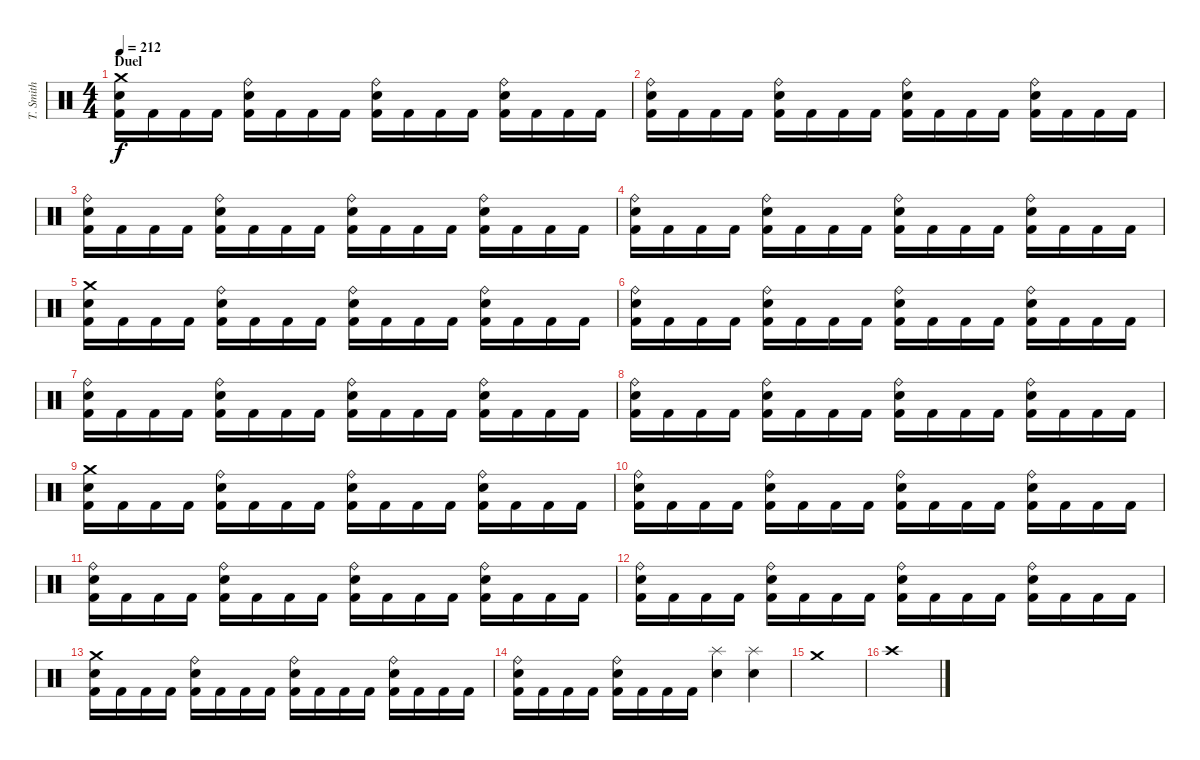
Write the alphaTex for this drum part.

\track ("T. Smith" "T. Smith") {instrument percussion}
\staff {score}
\articulation defaults
\ts (4 4)
\section ("" "Duel")
\tempo 212
\clef neutral
\ks c
("Crash medium (hit)" "Electric Snare (hit)" "Kick (hit) 2").16{dy f} "Kick (hit) 2".16 "Kick (hit) 2".16 "Kick (hit) 2".16 ("Ride (bell)" "Electric Snare (hit)" "Kick (hit) 2").16 "Kick (hit) 2".16 "Kick (hit) 2".16 "Kick (hit) 2".16 ("Ride (bell)" "Electric Snare (hit)" "Kick (hit) 2").16 "Kick (hit) 2".16 "Kick (hit) 2".16 "Kick (hit) 2".16 ("Ride (bell)" "Electric Snare (hit)" "Kick (hit) 2").16 "Kick (hit) 2".16 "Kick (hit) 2".16 "Kick (hit) 2".16 |
("Ride (bell)" "Electric Snare (hit)" "Kick (hit) 2").16 "Kick (hit) 2".16 "Kick (hit) 2".16 "Kick (hit) 2".16 ("Ride (bell)" "Electric Snare (hit)" "Kick (hit) 2").16 "Kick (hit) 2".16 "Kick (hit) 2".16 "Kick (hit) 2".16 ("Ride (bell)" "Electric Snare (hit)" "Kick (hit) 2").16 "Kick (hit) 2".16 "Kick (hit) 2".16 "Kick (hit) 2".16 ("Ride (bell)" "Electric Snare (hit)" "Kick (hit) 2").16 "Kick (hit) 2".16 "Kick (hit) 2".16 "Kick (hit) 2".16 |
("Ride (bell)" "Electric Snare (hit)" "Kick (hit) 2").16 "Kick (hit) 2".16 "Kick (hit) 2".16 "Kick (hit) 2".16 ("Ride (bell)" "Electric Snare (hit)" "Kick (hit) 2").16 "Kick (hit) 2".16 "Kick (hit) 2".16 "Kick (hit) 2".16 ("Ride (bell)" "Electric Snare (hit)" "Kick (hit) 2").16 "Kick (hit) 2".16 "Kick (hit) 2".16 "Kick (hit) 2".16 ("Ride (bell)" "Electric Snare (hit)" "Kick (hit) 2").16 "Kick (hit) 2".16 "Kick (hit) 2".16 "Kick (hit) 2".16 |
("Ride (bell)" "Electric Snare (hit)" "Kick (hit) 2").16 "Kick (hit) 2".16 "Kick (hit) 2".16 "Kick (hit) 2".16 ("Ride (bell)" "Electric Snare (hit)" "Kick (hit) 2").16 "Kick (hit) 2".16 "Kick (hit) 2".16 "Kick (hit) 2".16 ("Ride (bell)" "Electric Snare (hit)" "Kick (hit) 2").16 "Kick (hit) 2".16 "Kick (hit) 2".16 "Kick (hit) 2".16 ("Ride (bell)" "Electric Snare (hit)" "Kick (hit) 2").16 "Kick (hit) 2".16 "Kick (hit) 2".16 "Kick (hit) 2".16 |
("Crash medium (hit)" "Electric Snare (hit)" "Kick (hit) 2").16 "Kick (hit) 2".16 "Kick (hit) 2".16 "Kick (hit) 2".16 ("Ride (bell)" "Electric Snare (hit)" "Kick (hit) 2").16 "Kick (hit) 2".16 "Kick (hit) 2".16 "Kick (hit) 2".16 ("Ride (bell)" "Electric Snare (hit)" "Kick (hit) 2").16 "Kick (hit) 2".16 "Kick (hit) 2".16 "Kick (hit) 2".16 ("Ride (bell)" "Electric Snare (hit)" "Kick (hit) 2").16 "Kick (hit) 2".16 "Kick (hit) 2".16 "Kick (hit) 2".16 |
("Ride (bell)" "Electric Snare (hit)" "Kick (hit) 2").16 "Kick (hit) 2".16 "Kick (hit) 2".16 "Kick (hit) 2".16 ("Ride (bell)" "Electric Snare (hit)" "Kick (hit) 2").16 "Kick (hit) 2".16 "Kick (hit) 2".16 "Kick (hit) 2".16 ("Ride (bell)" "Electric Snare (hit)" "Kick (hit) 2").16 "Kick (hit) 2".16 "Kick (hit) 2".16 "Kick (hit) 2".16 ("Ride (bell)" "Electric Snare (hit)" "Kick (hit) 2").16 "Kick (hit) 2".16 "Kick (hit) 2".16 "Kick (hit) 2".16 |
("Ride (bell)" "Electric Snare (hit)" "Kick (hit) 2").16 "Kick (hit) 2".16 "Kick (hit) 2".16 "Kick (hit) 2".16 ("Ride (bell)" "Electric Snare (hit)" "Kick (hit) 2").16 "Kick (hit) 2".16 "Kick (hit) 2".16 "Kick (hit) 2".16 ("Ride (bell)" "Electric Snare (hit)" "Kick (hit) 2").16 "Kick (hit) 2".16 "Kick (hit) 2".16 "Kick (hit) 2".16 ("Ride (bell)" "Electric Snare (hit)" "Kick (hit) 2").16 "Kick (hit) 2".16 "Kick (hit) 2".16 "Kick (hit) 2".16 |
("Ride (bell)" "Electric Snare (hit)" "Kick (hit) 2").16 "Kick (hit) 2".16 "Kick (hit) 2".16 "Kick (hit) 2".16 ("Ride (bell)" "Electric Snare (hit)" "Kick (hit) 2").16 "Kick (hit) 2".16 "Kick (hit) 2".16 "Kick (hit) 2".16 ("Ride (bell)" "Electric Snare (hit)" "Kick (hit) 2").16 "Kick (hit) 2".16 "Kick (hit) 2".16 "Kick (hit) 2".16 ("Ride (bell)" "Electric Snare (hit)" "Kick (hit) 2").16 "Kick (hit) 2".16 "Kick (hit) 2".16 "Kick (hit) 2".16 |
("Crash medium (hit)" "Electric Snare (hit)" "Kick (hit) 2").16 "Kick (hit) 2".16 "Kick (hit) 2".16 "Kick (hit) 2".16 ("Ride (bell)" "Electric Snare (hit)" "Kick (hit) 2").16 "Kick (hit) 2".16 "Kick (hit) 2".16 "Kick (hit) 2".16 ("Ride (bell)" "Electric Snare (hit)" "Kick (hit) 2").16 "Kick (hit) 2".16 "Kick (hit) 2".16 "Kick (hit) 2".16 ("Ride (bell)" "Electric Snare (hit)" "Kick (hit) 2").16 "Kick (hit) 2".16 "Kick (hit) 2".16 "Kick (hit) 2".16 |
("Ride (bell)" "Electric Snare (hit)" "Kick (hit) 2").16 "Kick (hit) 2".16 "Kick (hit) 2".16 "Kick (hit) 2".16 ("Ride (bell)" "Electric Snare (hit)" "Kick (hit) 2").16 "Kick (hit) 2".16 "Kick (hit) 2".16 "Kick (hit) 2".16 ("Ride (bell)" "Electric Snare (hit)" "Kick (hit) 2").16 "Kick (hit) 2".16 "Kick (hit) 2".16 "Kick (hit) 2".16 ("Ride (bell)" "Electric Snare (hit)" "Kick (hit) 2").16 "Kick (hit) 2".16 "Kick (hit) 2".16 "Kick (hit) 2".16 |
("Ride (bell)" "Electric Snare (hit)" "Kick (hit) 2").16 "Kick (hit) 2".16 "Kick (hit) 2".16 "Kick (hit) 2".16 ("Ride (bell)" "Electric Snare (hit)" "Kick (hit) 2").16 "Kick (hit) 2".16 "Kick (hit) 2".16 "Kick (hit) 2".16 ("Ride (bell)" "Electric Snare (hit)" "Kick (hit) 2").16 "Kick (hit) 2".16 "Kick (hit) 2".16 "Kick (hit) 2".16 ("Ride (bell)" "Electric Snare (hit)" "Kick (hit) 2").16 "Kick (hit) 2".16 "Kick (hit) 2".16 "Kick (hit) 2".16 |
("Ride (bell)" "Electric Snare (hit)" "Kick (hit) 2").16 "Kick (hit) 2".16 "Kick (hit) 2".16 "Kick (hit) 2".16 ("Ride (bell)" "Electric Snare (hit)" "Kick (hit) 2").16 "Kick (hit) 2".16 "Kick (hit) 2".16 "Kick (hit) 2".16 ("Ride (bell)" "Electric Snare (hit)" "Kick (hit) 2").16 "Kick (hit) 2".16 "Kick (hit) 2".16 "Kick (hit) 2".16 ("Ride (bell)" "Electric Snare (hit)" "Kick (hit) 2").16 "Kick (hit) 2".16 "Kick (hit) 2".16 "Kick (hit) 2".16 |
("Crash medium (hit)" "Electric Snare (hit)" "Kick (hit) 2").16 "Kick (hit) 2".16 "Kick (hit) 2".16 "Kick (hit) 2".16 ("Ride (bell)" "Electric Snare (hit)" "Kick (hit) 2").16 "Kick (hit) 2".16 "Kick (hit) 2".16 "Kick (hit) 2".16 ("Ride (bell)" "Electric Snare (hit)" "Kick (hit) 2").16 "Kick (hit) 2".16 "Kick (hit) 2".16 "Kick (hit) 2".16 ("Ride (bell)" "Electric Snare (hit)" "Kick (hit) 2").16 "Kick (hit) 2".16 "Kick (hit) 2".16 "Kick (hit) 2".16 |
("Ride (bell)" "Electric Snare (hit)" "Kick (hit) 2").16 "Kick (hit) 2".16 "Kick (hit) 2".16 "Kick (hit) 2".16 ("Ride (bell)" "Electric Snare (hit)" "Kick (hit) 2").16 "Kick (hit) 2".16 "Kick (hit) 2".16 "Kick (hit) 2".16 ("Splash (hit)" "Electric Snare (hit)").4 ("Splash (hit)" "Electric Snare (hit)").4 |
"Crash medium (hit)".1 |
"Crash high (hit)".1
